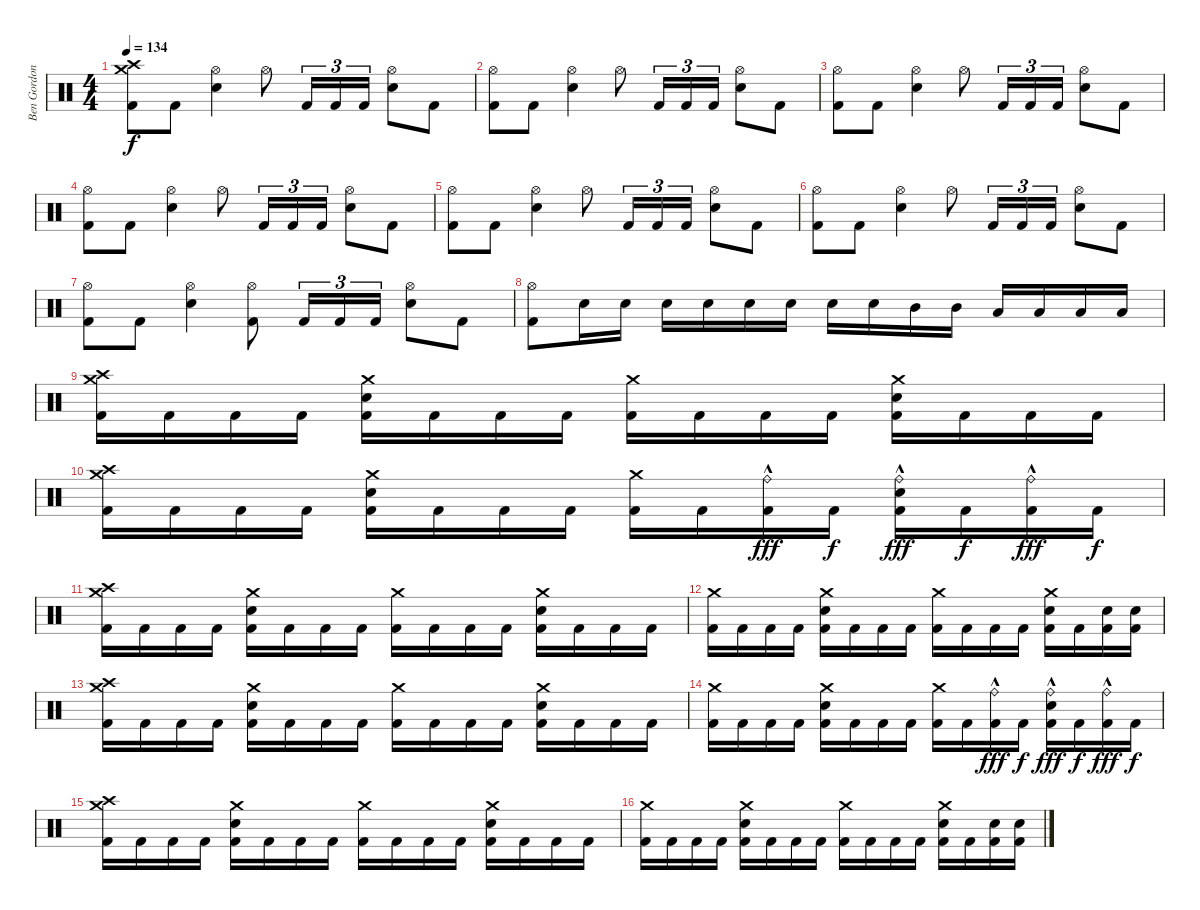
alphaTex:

\track ("Ben Gordon" "Ben Gordon") {instrument percussion}
\staff {score}
\articulation defaults
\ts (4 4)
\tempo 134
\clef neutral
\ks c
("Crash medium (hit)" "Crash high (hit)" "Kick (hit) 2").8{dy f} "Kick (hit) 2".8 ("Hi-Hat (open)" "Electric Snare (hit)").4 "Hi-Hat (open)".8 "Kick (hit) 2".16{tu (3 2)} "Kick (hit) 2".16{tu (3 2)} "Kick (hit) 2".16{tu (3 2)} ("Hi-Hat (open)" "Electric Snare (hit)").8 "Kick (hit) 2".8 |
("Hi-Hat (open)" "Kick (hit) 2").8 "Kick (hit) 2".8 ("Hi-Hat (open)" "Electric Snare (hit)").4 "Hi-Hat (open)".8 "Kick (hit) 2".16{tu (3 2)} "Kick (hit) 2".16{tu (3 2)} "Kick (hit) 2".16{tu (3 2)} ("Hi-Hat (open)" "Electric Snare (hit)").8 "Kick (hit) 2".8 |
("Hi-Hat (open)" "Kick (hit) 2").8 "Kick (hit) 2".8 ("Hi-Hat (open)" "Electric Snare (hit)").4 "Hi-Hat (open)".8 "Kick (hit) 2".16{tu (3 2)} "Kick (hit) 2".16{tu (3 2)} "Kick (hit) 2".16{tu (3 2)} ("Hi-Hat (open)" "Electric Snare (hit)").8 "Kick (hit) 2".8 |
("Hi-Hat (open)" "Kick (hit) 2").8 "Kick (hit) 2".8 ("Hi-Hat (open)" "Electric Snare (hit)").4 "Hi-Hat (open)".8 "Kick (hit) 2".16{tu (3 2)} "Kick (hit) 2".16{tu (3 2)} "Kick (hit) 2".16{tu (3 2)} ("Hi-Hat (open)" "Electric Snare (hit)").8 "Kick (hit) 2".8 |
("Hi-Hat (open)" "Kick (hit) 2").8 "Kick (hit) 2".8 ("Hi-Hat (open)" "Electric Snare (hit)").4 "Hi-Hat (open)".8 "Kick (hit) 2".16{tu (3 2)} "Kick (hit) 2".16{tu (3 2)} "Kick (hit) 2".16{tu (3 2)} ("Hi-Hat (open)" "Electric Snare (hit)").8 "Kick (hit) 2".8 |
("Hi-Hat (open)" "Kick (hit) 2").8 "Kick (hit) 2".8 ("Hi-Hat (open)" "Electric Snare (hit)").4 "Hi-Hat (open)".8 "Kick (hit) 2".16{tu (3 2)} "Kick (hit) 2".16{tu (3 2)} "Kick (hit) 2".16{tu (3 2)} ("Hi-Hat (open)" "Electric Snare (hit)").8 "Kick (hit) 2".8 |
("Hi-Hat (open)" "Kick (hit) 2").8 "Kick (hit) 2".8 ("Hi-Hat (open)" "Electric Snare (hit)").4 ("Hi-Hat (open)" "Kick (hit) 2").8 "Kick (hit) 2".16{tu (3 2)} "Kick (hit) 2".16{tu (3 2)} "Kick (hit) 2".16{tu (3 2)} ("Hi-Hat (open)" "Electric Snare (hit)").8 "Kick (hit) 2".8 |
("Hi-Hat (open)" "Kick (hit) 2").8 "Electric Snare (hit)".16 "Electric Snare (hit)".16 "Electric Snare (hit)".16 "Electric Snare (hit)".16 "Electric Snare (hit)".16 "Electric Snare (hit)".16 "Electric Snare (hit)".16 "Electric Snare (hit)".16 "Mid Tom (hit)".16 "Mid Tom (hit)".16 "Low Tom (hit)".16 "Low Tom (hit)".16 "Low Floor Tom (hit)".16 "Low Floor Tom (hit)".16 |
("Crash medium (hit)" "Crash high (hit)" "Kick (hit) 2").16 "Kick (hit) 2".16 "Kick (hit) 2".16 "Kick (hit) 2".16 ("Crash medium (hit)" "Electric Snare (hit)" "Kick (hit) 2").16 "Kick (hit) 2".16 "Kick (hit) 2".16 "Kick (hit) 2".16 ("Crash medium (hit)" "Kick (hit) 2").16 "Kick (hit) 2".16 "Kick (hit) 2".16 "Kick (hit) 2".16 ("Crash medium (hit)" "Electric Snare (hit)" "Kick (hit) 2").16 "Kick (hit) 2".16 "Kick (hit) 2".16 "Kick (hit) 2".16 |
("Crash medium (hit)" "Crash high (hit)" "Kick (hit) 2").16 "Kick (hit) 2".16 "Kick (hit) 2".16 "Kick (hit) 2".16 ("Crash medium (hit)" "Electric Snare (hit)" "Kick (hit) 2").16 "Kick (hit) 2".16 "Kick (hit) 2".16 "Kick (hit) 2".16 ("Crash medium (hit)" "Kick (hit) 2").16 "Kick (hit) 2".16 ("Ride (bell)"{hac} "Kick (hit) 2").16{dy fff} "Kick (hit) 2".16{dy f} ("Ride (bell)"{hac} "Electric Snare (hit)" "Kick (hit) 2").16{dy fff} "Kick (hit) 2".16{dy f} ("Ride (bell)"{hac} "Kick (hit) 2").16{dy fff} "Kick (hit) 2".16{dy f} |
("Crash medium (hit)" "Crash high (hit)" "Kick (hit) 2").16 "Kick (hit) 2".16 "Kick (hit) 2".16 "Kick (hit) 2".16 ("Crash medium (hit)" "Electric Snare (hit)" "Kick (hit) 2").16 "Kick (hit) 2".16 "Kick (hit) 2".16 "Kick (hit) 2".16 ("Crash medium (hit)" "Kick (hit) 2").16 "Kick (hit) 2".16 "Kick (hit) 2".16 "Kick (hit) 2".16 ("Crash medium (hit)" "Electric Snare (hit)" "Kick (hit) 2").16 "Kick (hit) 2".16 "Kick (hit) 2".16 "Kick (hit) 2".16 |
("Crash medium (hit)" "Kick (hit) 2").16 "Kick (hit) 2".16 "Kick (hit) 2".16 "Kick (hit) 2".16 ("Crash medium (hit)" "Electric Snare (hit)" "Kick (hit) 2").16 "Kick (hit) 2".16 "Kick (hit) 2".16 "Kick (hit) 2".16 ("Crash medium (hit)" "Kick (hit) 2").16 "Kick (hit) 2".16 "Kick (hit) 2".16 "Kick (hit) 2".16 ("Crash medium (hit)" "Electric Snare (hit)" "Kick (hit) 2").16 "Kick (hit) 2".16 ("Electric Snare (hit)" "Kick (hit) 2").16 ("Electric Snare (hit)" "Kick (hit) 2").16 |
("Crash medium (hit)" "Crash high (hit)" "Kick (hit) 2").16 "Kick (hit) 2".16 "Kick (hit) 2".16 "Kick (hit) 2".16 ("Crash medium (hit)" "Electric Snare (hit)" "Kick (hit) 2").16 "Kick (hit) 2".16 "Kick (hit) 2".16 "Kick (hit) 2".16 ("Crash medium (hit)" "Kick (hit) 2").16 "Kick (hit) 2".16 "Kick (hit) 2".16 "Kick (hit) 2".16 ("Crash medium (hit)" "Electric Snare (hit)" "Kick (hit) 2").16 "Kick (hit) 2".16 "Kick (hit) 2".16 "Kick (hit) 2".16 |
("Crash medium (hit)" "Kick (hit) 2").16 "Kick (hit) 2".16 "Kick (hit) 2".16 "Kick (hit) 2".16 ("Crash medium (hit)" "Electric Snare (hit)" "Kick (hit) 2").16 "Kick (hit) 2".16 "Kick (hit) 2".16 "Kick (hit) 2".16 ("Crash medium (hit)" "Kick (hit) 2").16 "Kick (hit) 2".16 ("Ride (bell)"{hac} "Kick (hit) 2").16{dy fff} "Kick (hit) 2".16{dy f} ("Ride (bell)"{hac} "Electric Snare (hit)" "Kick (hit) 2").16{dy fff} "Kick (hit) 2".16{dy f} ("Ride (bell)"{hac} "Kick (hit) 2").16{dy fff} "Kick (hit) 2".16{dy f} |
("Crash medium (hit)" "Crash high (hit)" "Kick (hit) 2").16 "Kick (hit) 2".16 "Kick (hit) 2".16 "Kick (hit) 2".16 ("Crash medium (hit)" "Electric Snare (hit)" "Kick (hit) 2").16 "Kick (hit) 2".16 "Kick (hit) 2".16 "Kick (hit) 2".16 ("Crash medium (hit)" "Kick (hit) 2").16 "Kick (hit) 2".16 "Kick (hit) 2".16 "Kick (hit) 2".16 ("Crash medium (hit)" "Electric Snare (hit)" "Kick (hit) 2").16 "Kick (hit) 2".16 "Kick (hit) 2".16 "Kick (hit) 2".16 |
("Crash medium (hit)" "Kick (hit) 2").16 "Kick (hit) 2".16 "Kick (hit) 2".16 "Kick (hit) 2".16 ("Crash medium (hit)" "Electric Snare (hit)" "Kick (hit) 2").16 "Kick (hit) 2".16 "Kick (hit) 2".16 "Kick (hit) 2".16 ("Crash medium (hit)" "Kick (hit) 2").16 "Kick (hit) 2".16 "Kick (hit) 2".16 "Kick (hit) 2".16 ("Crash medium (hit)" "Electric Snare (hit)" "Kick (hit) 2").16 "Kick (hit) 2".16 ("Electric Snare (hit)" "Kick (hit) 2").16 ("Electric Snare (hit)" "Kick (hit) 2").16
